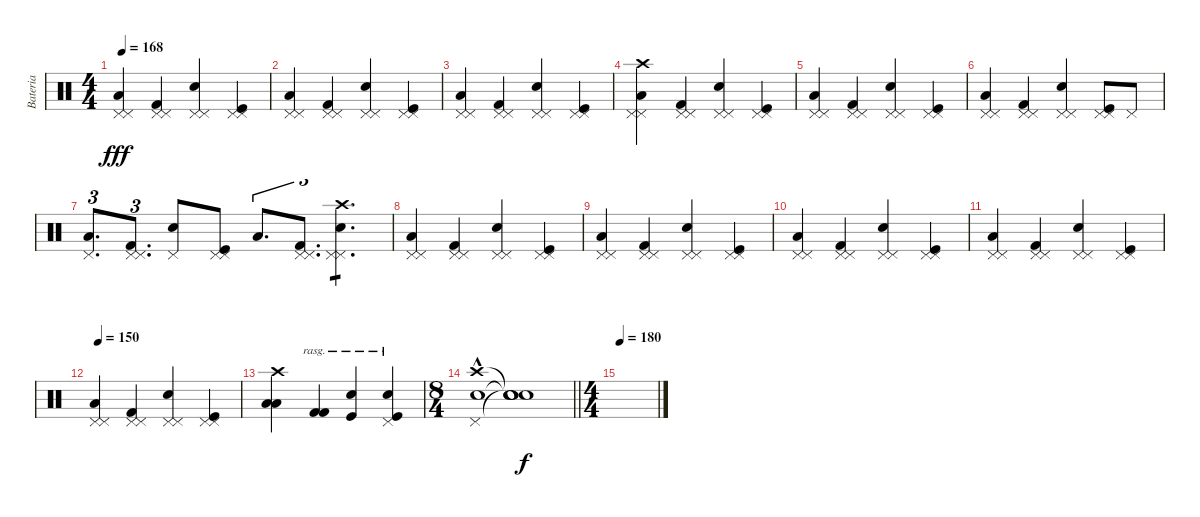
\track ("Bateria" "Bateria") {instrument percussion}
\staff {score}
\articulation defaults
\ts (4 4)
\tempo 168
\clef neutral
\ks c
("Pedal Hi-Hat (hit)" "Pedal Hi-Hat (hit)" "Low Floor Tom (hit)").4{dy fff} ("Pedal Hi-Hat (hit)" "Pedal Hi-Hat (hit)" "Kick (hit) 2").4 ("Pedal Hi-Hat (hit)" "Pedal Hi-Hat (hit)" "Electric Snare (hit)").4 ("Pedal Hi-Hat (hit)" "Pedal Hi-Hat (hit)" "Kick (hit)").4 |
("Pedal Hi-Hat (hit)" "Pedal Hi-Hat (hit)" "Low Floor Tom (hit)").4 ("Pedal Hi-Hat (hit)" "Pedal Hi-Hat (hit)" "Kick (hit) 2").4 ("Pedal Hi-Hat (hit)" "Pedal Hi-Hat (hit)" "Electric Snare (hit)").4 ("Pedal Hi-Hat (hit)" "Pedal Hi-Hat (hit)" "Kick (hit)").4 |
("Pedal Hi-Hat (hit)" "Pedal Hi-Hat (hit)" "Low Floor Tom (hit)").4 ("Pedal Hi-Hat (hit)" "Pedal Hi-Hat (hit)" "Kick (hit) 2").4 ("Pedal Hi-Hat (hit)" "Pedal Hi-Hat (hit)" "Electric Snare (hit)").4 ("Pedal Hi-Hat (hit)" "Pedal Hi-Hat (hit)" "Kick (hit)").4 |
("Crash high (hit)" "Pedal Hi-Hat (hit)" "Pedal Hi-Hat (hit)" "Low Floor Tom (hit)").4 ("Pedal Hi-Hat (hit)" "Pedal Hi-Hat (hit)" "Kick (hit) 2").4 ("Pedal Hi-Hat (hit)" "Pedal Hi-Hat (hit)" "Electric Snare (hit)").4 ("Pedal Hi-Hat (hit)" "Pedal Hi-Hat (hit)" "Kick (hit)").4 |
("Pedal Hi-Hat (hit)" "Pedal Hi-Hat (hit)" "Low Floor Tom (hit)").4 ("Pedal Hi-Hat (hit)" "Pedal Hi-Hat (hit)" "Kick (hit) 2").4 ("Pedal Hi-Hat (hit)" "Pedal Hi-Hat (hit)" "Electric Snare (hit)").4 ("Pedal Hi-Hat (hit)" "Pedal Hi-Hat (hit)" "Kick (hit)").4 |
("Pedal Hi-Hat (hit)" "Pedal Hi-Hat (hit)" "Low Floor Tom (hit)").4 ("Pedal Hi-Hat (hit)" "Pedal Hi-Hat (hit)" "Kick (hit) 2").4 ("Pedal Hi-Hat (hit)" "Pedal Hi-Hat (hit)" "Electric Snare (hit)").4 ("Pedal Hi-Hat (hit)" "Pedal Hi-Hat (hit)" "Kick (hit)").8 "Pedal Hi-Hat (hit)".8 |
("Pedal Hi-Hat (hit)" "Low Floor Tom (hit)").8{d tu (3 2)} ("Pedal Hi-Hat (hit)" "Pedal Hi-Hat (hit)" "Kick (hit) 2").8{d tu (3 2)} ("Pedal Hi-Hat (hit)" "Electric Snare (hit)").8 ("Pedal Hi-Hat (hit)" "Pedal Hi-Hat (hit)" "Kick (hit)").8 "Low Floor Tom (hit)".8{d tu (3 2)} ("Pedal Hi-Hat (hit)" "Pedal Hi-Hat (hit)" "Kick (hit) 2").8{d tu (3 2)} ("Crash high (hit)" "Pedal Hi-Hat (hit)" "Pedal Hi-Hat (hit)" "Electric Snare (hit)").4{d tu (3 2) tp 1} |
("Pedal Hi-Hat (hit)" "Pedal Hi-Hat (hit)" "Low Floor Tom (hit)").4 ("Pedal Hi-Hat (hit)" "Pedal Hi-Hat (hit)" "Kick (hit) 2").4 ("Pedal Hi-Hat (hit)" "Pedal Hi-Hat (hit)" "Electric Snare (hit)").4 ("Pedal Hi-Hat (hit)" "Pedal Hi-Hat (hit)" "Kick (hit)").4 |
("Pedal Hi-Hat (hit)" "Pedal Hi-Hat (hit)" "Low Floor Tom (hit)").4 ("Pedal Hi-Hat (hit)" "Pedal Hi-Hat (hit)" "Kick (hit) 2").4 ("Pedal Hi-Hat (hit)" "Pedal Hi-Hat (hit)" "Electric Snare (hit)").4 ("Pedal Hi-Hat (hit)" "Pedal Hi-Hat (hit)" "Kick (hit)").4 |
("Pedal Hi-Hat (hit)" "Pedal Hi-Hat (hit)" "Low Floor Tom (hit)").4 ("Pedal Hi-Hat (hit)" "Pedal Hi-Hat (hit)" "Kick (hit) 2").4 ("Pedal Hi-Hat (hit)" "Pedal Hi-Hat (hit)" "Electric Snare (hit)").4 ("Pedal Hi-Hat (hit)" "Pedal Hi-Hat (hit)" "Kick (hit)").4 |
("Pedal Hi-Hat (hit)" "Pedal Hi-Hat (hit)" "Low Floor Tom (hit)").4 ("Pedal Hi-Hat (hit)" "Pedal Hi-Hat (hit)" "Kick (hit) 2").4 ("Pedal Hi-Hat (hit)" "Pedal Hi-Hat (hit)" "Electric Snare (hit)").4 ("Pedal Hi-Hat (hit)" "Pedal Hi-Hat (hit)" "Kick (hit)").4 |
\tempo 150
("Pedal Hi-Hat (hit)" "Pedal Hi-Hat (hit)" "Low Floor Tom (hit)").4 ("Pedal Hi-Hat (hit)" "Pedal Hi-Hat (hit)" "Kick (hit) 2").4 ("Pedal Hi-Hat (hit)" "Pedal Hi-Hat (hit)" "Electric Snare (hit)").4 ("Pedal Hi-Hat (hit)" "Pedal Hi-Hat (hit)" "Kick (hit)").4 |
("Crash high (hit)" "Low Floor Tom (hit)" "Low Floor Tom (hit)").4 ("Kick (hit) 2" "Kick (hit) 2").4{bd 480 rasg ii} ("Kick (hit)" "Electric Snare (hit)").4{bd 480 rasg ii} ("Pedal Hi-Hat (hit)" "Kick (hit)" "Electric Snare (hit)").4{bd 480 rasg ii} |
\ts (8 4)
\barLineRight lightlight
("Crash high (hit)"{hac} "Pedal Hi-Hat (hit)"{hac} "Electric Snare (hit)"{hac}).1{bd 480} ("Snare (hit)"{t} "Snare (hit)"{t} "Snare (hit)"{t} "Snare (hit)").1{dy f} |
\ts (4 4)
\tempo 180
